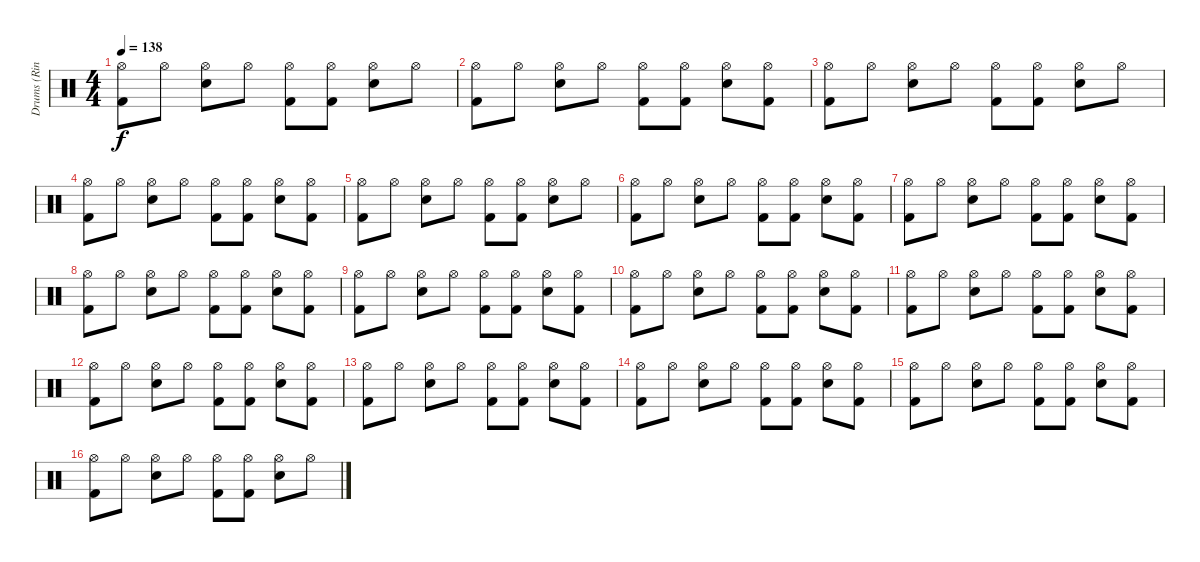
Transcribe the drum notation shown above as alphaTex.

\track ("Drums (Ringo Starr)" "Drums (Rin") {instrument percussion}
\staff {score}
\articulation defaults
\ts (4 4)
\tempo 138
\clef neutral
\ks c
("Hi-Hat (open)" "Kick (hit) 2").8{dy f} "Hi-Hat (open)".8 ("Hi-Hat (open)" "Snare (hit) 2").8 "Hi-Hat (open)".8 ("Hi-Hat (open)" "Kick (hit) 2").8 ("Hi-Hat (open)" "Kick (hit) 2").8 ("Hi-Hat (open)" "Snare (hit) 2").8 "Hi-Hat (open)".8 |
("Hi-Hat (open)" "Kick (hit) 2").8 "Hi-Hat (open)".8 ("Hi-Hat (open)" "Snare (hit) 2").8 "Hi-Hat (open)".8 ("Hi-Hat (open)" "Kick (hit) 2").8 ("Hi-Hat (open)" "Kick (hit) 2").8 ("Hi-Hat (open)" "Snare (hit) 2").8 ("Hi-Hat (open)" "Kick (hit) 2").8 |
("Hi-Hat (open)" "Kick (hit) 2").8 "Hi-Hat (open)".8 ("Hi-Hat (open)" "Snare (hit) 2").8 "Hi-Hat (open)".8 ("Hi-Hat (open)" "Kick (hit) 2").8 ("Hi-Hat (open)" "Kick (hit) 2").8 ("Hi-Hat (open)" "Snare (hit) 2").8 "Hi-Hat (open)".8 |
("Hi-Hat (open)" "Kick (hit) 2").8 "Hi-Hat (open)".8 ("Hi-Hat (open)" "Snare (hit) 2").8 "Hi-Hat (open)".8 ("Hi-Hat (open)" "Kick (hit) 2").8 ("Hi-Hat (open)" "Kick (hit) 2").8 ("Hi-Hat (open)" "Snare (hit) 2").8 ("Hi-Hat (open)" "Kick (hit) 2").8 |
("Hi-Hat (open)" "Kick (hit) 2").8 "Hi-Hat (open)".8 ("Hi-Hat (open)" "Snare (hit) 2").8 "Hi-Hat (open)".8 ("Hi-Hat (open)" "Kick (hit) 2").8 ("Hi-Hat (open)" "Kick (hit) 2").8 ("Hi-Hat (open)" "Snare (hit) 2").8 "Hi-Hat (open)".8 |
("Hi-Hat (open)" "Kick (hit) 2").8 "Hi-Hat (open)".8 ("Hi-Hat (open)" "Snare (hit) 2").8 "Hi-Hat (open)".8 ("Hi-Hat (open)" "Kick (hit) 2").8 ("Hi-Hat (open)" "Kick (hit) 2").8 ("Hi-Hat (open)" "Snare (hit) 2").8 ("Hi-Hat (open)" "Kick (hit) 2").8 |
("Hi-Hat (open)" "Kick (hit) 2").8 "Hi-Hat (open)".8 ("Hi-Hat (open)" "Snare (hit) 2").8 "Hi-Hat (open)".8 ("Hi-Hat (open)" "Kick (hit) 2").8 ("Hi-Hat (open)" "Kick (hit) 2").8 ("Hi-Hat (open)" "Snare (hit) 2").8 ("Hi-Hat (open)" "Kick (hit) 2").8 |
("Hi-Hat (open)" "Kick (hit) 2").8 "Hi-Hat (open)".8 ("Hi-Hat (open)" "Snare (hit) 2").8 "Hi-Hat (open)".8 ("Hi-Hat (open)" "Kick (hit) 2").8 ("Hi-Hat (open)" "Kick (hit) 2").8 ("Hi-Hat (open)" "Snare (hit) 2").8 ("Hi-Hat (open)" "Kick (hit) 2").8 |
("Hi-Hat (open)" "Kick (hit) 2").8 "Hi-Hat (open)".8 ("Hi-Hat (open)" "Snare (hit) 2").8 "Hi-Hat (open)".8 ("Hi-Hat (open)" "Kick (hit) 2").8 ("Hi-Hat (open)" "Kick (hit) 2").8 ("Hi-Hat (open)" "Snare (hit) 2").8 ("Hi-Hat (open)" "Kick (hit) 2").8 |
("Hi-Hat (open)" "Kick (hit) 2").8{volume 10} "Hi-Hat (open)".8 ("Hi-Hat (open)" "Snare (hit) 2").8 "Hi-Hat (open)".8 ("Hi-Hat (open)" "Kick (hit) 2").8 ("Hi-Hat (open)" "Kick (hit) 2").8 ("Hi-Hat (open)" "Snare (hit) 2").8 ("Hi-Hat (open)" "Kick (hit) 2").8 |
("Hi-Hat (open)" "Kick (hit) 2").8 "Hi-Hat (open)".8 ("Hi-Hat (open)" "Snare (hit) 2").8 "Hi-Hat (open)".8 ("Hi-Hat (open)" "Kick (hit) 2").8 ("Hi-Hat (open)" "Kick (hit) 2").8 ("Hi-Hat (open)" "Snare (hit) 2").8 ("Hi-Hat (open)" "Kick (hit) 2").8 |
("Hi-Hat (open)" "Kick (hit) 2").8 "Hi-Hat (open)".8 ("Hi-Hat (open)" "Snare (hit) 2").8 "Hi-Hat (open)".8 ("Hi-Hat (open)" "Kick (hit) 2").8 ("Hi-Hat (open)" "Kick (hit) 2").8 ("Hi-Hat (open)" "Snare (hit) 2").8 ("Hi-Hat (open)" "Kick (hit) 2").8 |
("Hi-Hat (open)" "Kick (hit) 2").8 "Hi-Hat (open)".8 ("Hi-Hat (open)" "Snare (hit) 2").8 "Hi-Hat (open)".8 ("Hi-Hat (open)" "Kick (hit) 2").8 ("Hi-Hat (open)" "Kick (hit) 2").8 ("Hi-Hat (open)" "Snare (hit) 2").8 ("Hi-Hat (open)" "Kick (hit) 2").8 |
("Hi-Hat (open)" "Kick (hit) 2").8 "Hi-Hat (open)".8 ("Hi-Hat (open)" "Snare (hit) 2").8 "Hi-Hat (open)".8 ("Hi-Hat (open)" "Kick (hit) 2").8 ("Hi-Hat (open)" "Kick (hit) 2").8 ("Hi-Hat (open)" "Snare (hit) 2").8 ("Hi-Hat (open)" "Kick (hit) 2").8 |
("Hi-Hat (open)" "Kick (hit) 2").8 "Hi-Hat (open)".8 ("Hi-Hat (open)" "Snare (hit) 2").8 "Hi-Hat (open)".8 ("Hi-Hat (open)" "Kick (hit) 2").8 ("Hi-Hat (open)" "Kick (hit) 2").8 ("Hi-Hat (open)" "Snare (hit) 2").8 ("Hi-Hat (open)" "Kick (hit) 2").8 |
("Hi-Hat (open)" "Kick (hit) 2").8 "Hi-Hat (open)".8 ("Hi-Hat (open)" "Snare (hit) 2").8 "Hi-Hat (open)".8 ("Hi-Hat (open)" "Kick (hit) 2").8 ("Hi-Hat (open)" "Kick (hit) 2").8 ("Hi-Hat (open)" "Snare (hit) 2").8 "Hi-Hat (open)".8
